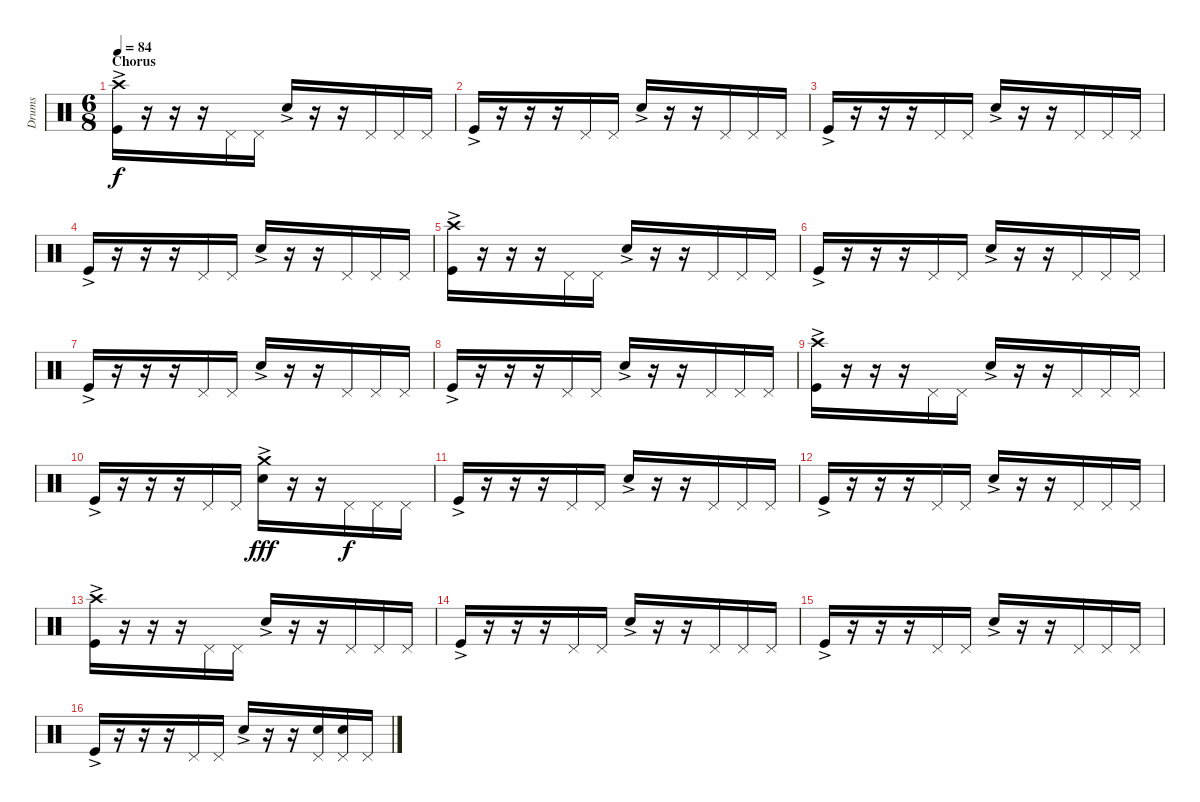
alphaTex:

\track ("Drums" "Drums") {instrument percussion}
\staff {score}
\articulation defaults
\ts (6 8)
\section ("" "Chorus")
\tempo 84
\clef neutral
\ks c
("Crash high (hit)" "Kick (hit)"{ac}).16{dy f} r.16 r.16 r.16 "Pedal Hi-Hat (hit)".16 "Pedal Hi-Hat (hit)".16 "Snare (hit) 2"{ac}.16 r.16 r.16 "Pedal Hi-Hat (hit)".16 "Pedal Hi-Hat (hit)".16 "Pedal Hi-Hat (hit)".16 |
"Kick (hit)"{ac}.16 r.16 r.16 r.16 "Pedal Hi-Hat (hit)".16 "Pedal Hi-Hat (hit)".16 "Snare (hit) 2"{ac}.16 r.16 r.16 "Pedal Hi-Hat (hit)".16 "Pedal Hi-Hat (hit)".16 "Pedal Hi-Hat (hit)".16 |
"Kick (hit)"{ac}.16 r.16 r.16 r.16 "Pedal Hi-Hat (hit)".16 "Pedal Hi-Hat (hit)".16 "Snare (hit) 2"{ac}.16 r.16 r.16 "Pedal Hi-Hat (hit)".16 "Pedal Hi-Hat (hit)".16 "Pedal Hi-Hat (hit)".16 |
"Kick (hit)"{ac}.16 r.16 r.16 r.16 "Pedal Hi-Hat (hit)".16 "Pedal Hi-Hat (hit)".16 "Snare (hit) 2"{ac}.16 r.16 r.16 "Pedal Hi-Hat (hit)".16 "Pedal Hi-Hat (hit)".16 "Pedal Hi-Hat (hit)".16 |
("Crash high (hit)" "Kick (hit)"{ac}).16 r.16 r.16 r.16 "Pedal Hi-Hat (hit)".16 "Pedal Hi-Hat (hit)".16 "Snare (hit) 2"{ac}.16 r.16 r.16 "Pedal Hi-Hat (hit)".16 "Pedal Hi-Hat (hit)".16 "Pedal Hi-Hat (hit)".16 |
"Kick (hit)"{ac}.16 r.16 r.16 r.16 "Pedal Hi-Hat (hit)".16 "Pedal Hi-Hat (hit)".16 "Snare (hit) 2"{ac}.16 r.16 r.16 "Pedal Hi-Hat (hit)".16 "Pedal Hi-Hat (hit)".16 "Pedal Hi-Hat (hit)".16 |
"Kick (hit)"{ac}.16 r.16 r.16 r.16 "Pedal Hi-Hat (hit)".16 "Pedal Hi-Hat (hit)".16 "Snare (hit) 2"{ac}.16 r.16 r.16 "Pedal Hi-Hat (hit)".16 "Pedal Hi-Hat (hit)".16 "Pedal Hi-Hat (hit)".16 |
"Kick (hit)"{ac}.16 r.16 r.16 r.16 "Pedal Hi-Hat (hit)".16 "Pedal Hi-Hat (hit)".16 "Snare (hit) 2"{ac}.16 r.16 r.16 "Pedal Hi-Hat (hit)".16 "Pedal Hi-Hat (hit)".16 "Pedal Hi-Hat (hit)".16 |
("Crash high (hit)" "Kick (hit)"{ac}).16 r.16 r.16 r.16 "Pedal Hi-Hat (hit)".16 "Pedal Hi-Hat (hit)".16 "Snare (hit) 2"{ac}.16 r.16 r.16 "Pedal Hi-Hat (hit)".16 "Pedal Hi-Hat (hit)".16 "Pedal Hi-Hat (hit)".16 |
"Kick (hit)"{ac}.16 r.16 r.16 r.16 "Pedal Hi-Hat (hit)".16 "Pedal Hi-Hat (hit)".16 ("Crash medium (hit)" "Snare (hit) 2"{ac}).16{dy fff} r.16 r.16 "Pedal Hi-Hat (hit)".16{dy f} "Pedal Hi-Hat (hit)".16 "Pedal Hi-Hat (hit)".16 |
"Kick (hit)"{ac}.16 r.16 r.16 r.16 "Pedal Hi-Hat (hit)".16 "Pedal Hi-Hat (hit)".16 "Snare (hit) 2"{ac}.16 r.16 r.16 "Pedal Hi-Hat (hit)".16 "Pedal Hi-Hat (hit)".16 "Pedal Hi-Hat (hit)".16 |
"Kick (hit)"{ac}.16 r.16 r.16 r.16 "Pedal Hi-Hat (hit)".16 "Pedal Hi-Hat (hit)".16 "Snare (hit) 2"{ac}.16 r.16 r.16 "Pedal Hi-Hat (hit)".16 "Pedal Hi-Hat (hit)".16 "Pedal Hi-Hat (hit)".16 |
("Crash high (hit)" "Kick (hit)"{ac}).16 r.16 r.16 r.16 "Pedal Hi-Hat (hit)".16 "Pedal Hi-Hat (hit)".16 "Snare (hit) 2"{ac}.16 r.16 r.16 "Pedal Hi-Hat (hit)".16 "Pedal Hi-Hat (hit)".16 "Pedal Hi-Hat (hit)".16 |
"Kick (hit)"{ac}.16 r.16 r.16 r.16 "Pedal Hi-Hat (hit)".16 "Pedal Hi-Hat (hit)".16 "Snare (hit) 2"{ac}.16 r.16 r.16 "Pedal Hi-Hat (hit)".16 "Pedal Hi-Hat (hit)".16 "Pedal Hi-Hat (hit)".16 |
"Kick (hit)"{ac}.16 r.16 r.16 r.16 "Pedal Hi-Hat (hit)".16 "Pedal Hi-Hat (hit)".16 "Snare (hit) 2"{ac}.16 r.16 r.16 "Pedal Hi-Hat (hit)".16 "Pedal Hi-Hat (hit)".16 "Pedal Hi-Hat (hit)".16 |
"Kick (hit)"{ac}.16 r.16 r.16 r.16 "Pedal Hi-Hat (hit)".16 "Pedal Hi-Hat (hit)".16 "Snare (hit) 2"{ac}.16 r.16 r.16 ("Pedal Hi-Hat (hit)" "Snare (hit) 2").16 ("Pedal Hi-Hat (hit)" "Snare (hit) 2").16 "Pedal Hi-Hat (hit)".16
